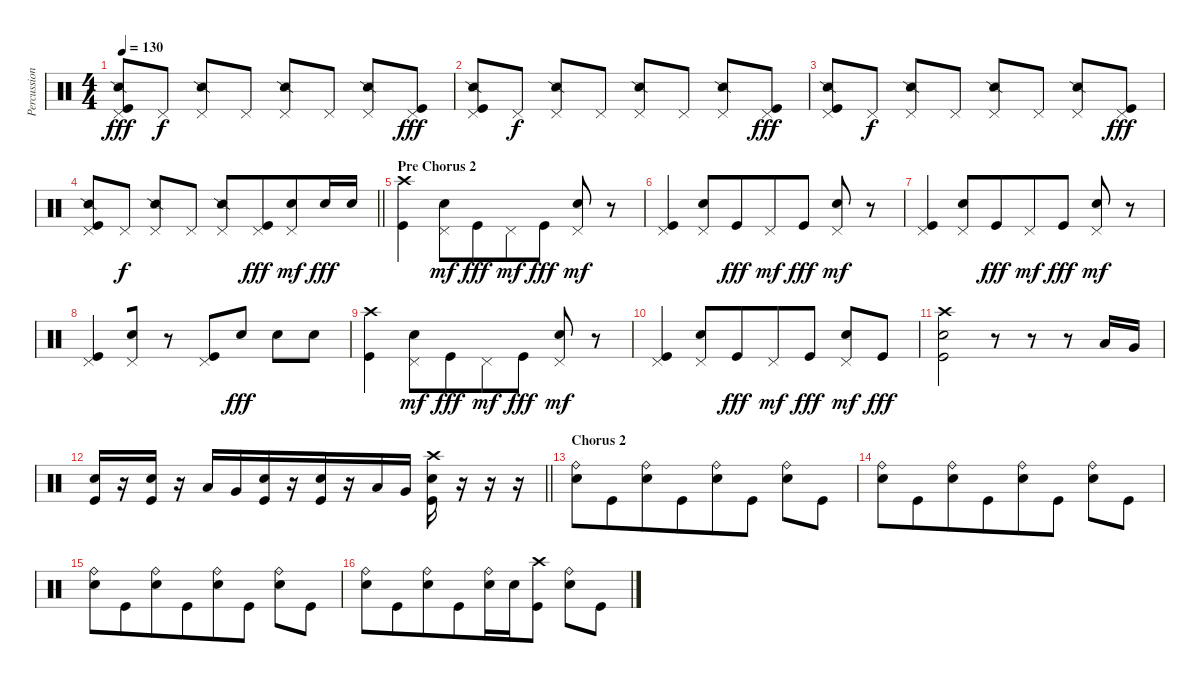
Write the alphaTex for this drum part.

\track ("Percussion" "Percussion") {instrument percussion bank 255}
\staff {score}
\articulation defaults
\ts (4 4)
\tempo 130
\clef neutral
\ks c
("Pedal Hi-Hat (hit)" "Snare (side stick) 2" "Kick (hit)").8{dy fff} "Pedal Hi-Hat (hit)".8{dy f} ("Pedal Hi-Hat (hit)" "Snare (side stick) 2").8 "Pedal Hi-Hat (hit)".8 ("Pedal Hi-Hat (hit)" "Snare (side stick) 2").8{beam merge} "Pedal Hi-Hat (hit)".8 ("Pedal Hi-Hat (hit)" "Snare (side stick) 2").8 ("Pedal Hi-Hat (hit)" "Kick (hit)").8{dy fff} |
("Pedal Hi-Hat (hit)" "Snare (side stick) 2" "Kick (hit)").8 "Pedal Hi-Hat (hit)".8{dy f} ("Pedal Hi-Hat (hit)" "Snare (side stick) 2").8 "Pedal Hi-Hat (hit)".8 ("Pedal Hi-Hat (hit)" "Snare (side stick) 2").8{beam merge} "Pedal Hi-Hat (hit)".8 ("Pedal Hi-Hat (hit)" "Snare (side stick) 2").8 ("Pedal Hi-Hat (hit)" "Kick (hit)").8{dy fff} |
("Pedal Hi-Hat (hit)" "Snare (side stick) 2" "Kick (hit)").8 "Pedal Hi-Hat (hit)".8{dy f} ("Pedal Hi-Hat (hit)" "Snare (side stick) 2").8 "Pedal Hi-Hat (hit)".8 ("Pedal Hi-Hat (hit)" "Snare (side stick) 2").8{beam merge} "Pedal Hi-Hat (hit)".8 ("Pedal Hi-Hat (hit)" "Snare (side stick) 2").8 ("Pedal Hi-Hat (hit)" "Kick (hit)").8{dy fff} |
\barLineRight lightlight
("Pedal Hi-Hat (hit)" "Kick (hit)" "Snare (side stick) 2").8 "Pedal Hi-Hat (hit)".8{dy f} ("Pedal Hi-Hat (hit)" "Snare (side stick) 2").8 "Pedal Hi-Hat (hit)".8 ("Pedal Hi-Hat (hit)" "Snare (side stick) 2").8{beam merge} ("Kick (hit)" "Pedal Hi-Hat (hit)").8{dy fff beam merge} ("Snare (hit) 2" "Pedal Hi-Hat (hit)").8{dy mf beam merge} "Snare (hit) 2".16{dy fff} "Snare (hit) 2".16 |
\section ("" "Pre Chorus 2")
("Kick (hit)" "Crash high (hit)").4{beam merge} ("Snare (hit) 2" "Pedal Hi-Hat (hit)").8{dy mf} "Kick (hit)".8{dy fff beam merge} "Pedal Hi-Hat (hit)".8{dy mf beam merge} "Kick (hit)".8{dy fff} ("Snare (hit) 2" "Pedal Hi-Hat (hit)").8{dy mf} r.8 |
("Kick (hit)" "Pedal Hi-Hat (hit)").4{beam merge} ("Snare (hit) 2" "Pedal Hi-Hat (hit)").8 "Kick (hit)".8{dy fff beam merge} "Pedal Hi-Hat (hit)".8{dy mf beam merge} "Kick (hit)".8{dy fff} ("Snare (hit) 2" "Pedal Hi-Hat (hit)").8{dy mf} r.8 |
("Kick (hit)" "Pedal Hi-Hat (hit)").4{beam merge} ("Snare (hit) 2" "Pedal Hi-Hat (hit)").8 "Kick (hit)".8{dy fff beam merge} "Pedal Hi-Hat (hit)".8{dy mf beam merge} "Kick (hit)".8{dy fff} ("Snare (hit) 2" "Pedal Hi-Hat (hit)").8{dy mf} r.8 |
("Kick (hit)" "Pedal Hi-Hat (hit)").4{beam merge} ("Snare (hit) 2" "Pedal Hi-Hat (hit)").8 r.8{beam merge} ("Kick (hit)" "Pedal Hi-Hat (hit)").8{beam merge} "Snare (hit) 2".8{dy fff} "Snare (hit) 2".8 "Snare (hit) 2".8 |
("Kick (hit)" "Crash high (hit)").4{beam merge} ("Snare (hit) 2" "Pedal Hi-Hat (hit)").8{dy mf} "Kick (hit)".8{dy fff beam merge} "Pedal Hi-Hat (hit)".8{dy mf beam merge} "Kick (hit)".8{dy fff} ("Snare (hit) 2" "Pedal Hi-Hat (hit)").8{dy mf} r.8 |
("Kick (hit)" "Pedal Hi-Hat (hit)").4{beam merge} ("Snare (hit) 2" "Pedal Hi-Hat (hit)").8 "Kick (hit)".8{dy fff beam merge} "Pedal Hi-Hat (hit)".8{dy mf beam merge} "Kick (hit)".8{dy fff} ("Snare (hit) 2" "Pedal Hi-Hat (hit)").8{dy mf} "Kick (hit)".8{dy fff} |
("Kick (hit)" "Snare (hit) 2" "Crash high (hit)").2 r.8 r.8{beam merge} r.8 "Low Tom (hit)".16{beam merge} "Very Low Tom (hit)".16 |
\barLineRight lightlight
("Snare (hit) 2" "Kick (hit)").16 r.16 ("Snare (hit) 2" "Kick (hit)").16 r.16 "Low Tom (hit)".16{beam merge} "Very Low Tom (hit)".16{beam merge} ("Snare (hit) 2" "Kick (hit)").16{beam merge} r.16 ("Snare (hit) 2" "Kick (hit)").16 r.16 "Low Tom (hit)".16 "Very Low Tom (hit)".16 ("Snare (hit) 2" "Crash high (hit)" "Kick (hit)").16 r.16 r.16{beam merge} r.16 |
\section ("" "Chorus 2")
("Snare (hit) 2" "Ride (bell)").8 "Kick (hit)".8{beam merge} ("Snare (hit) 2" "Ride (bell)").8 "Kick (hit)".8{beam merge} ("Snare (hit) 2" "Ride (bell)").8{beam merge} "Kick (hit)".8 ("Snare (hit) 2" "Ride (bell)").8{beam merge} "Kick (hit)".8 |
("Snare (hit) 2" "Ride (bell)").8 "Kick (hit)".8{beam merge} ("Snare (hit) 2" "Ride (bell)").8 "Kick (hit)".8{beam merge} ("Snare (hit) 2" "Ride (bell)").8{beam merge} "Kick (hit)".8 ("Snare (hit) 2" "Ride (bell)").8{beam merge} "Kick (hit)".8 |
("Snare (hit) 2" "Ride (bell)").8 "Kick (hit)".8{beam merge} ("Snare (hit) 2" "Ride (bell)").8 "Kick (hit)".8{beam merge} ("Snare (hit) 2" "Ride (bell)").8{beam merge} "Kick (hit)".8 ("Snare (hit) 2" "Ride (bell)").8{beam merge} "Kick (hit)".8 |
("Snare (hit) 2" "Ride (bell)").8 "Kick (hit)".8{beam merge} ("Snare (hit) 2" "Ride (bell)").8 "Kick (hit)".8{beam merge} ("Snare (hit) 2" "Ride (bell)").16 "Snare (hit) 2".16{beam merge} ("Kick (hit)" "Crash high (hit)").8 ("Snare (hit) 2" "Ride (bell)").8 "Kick (hit)".8
